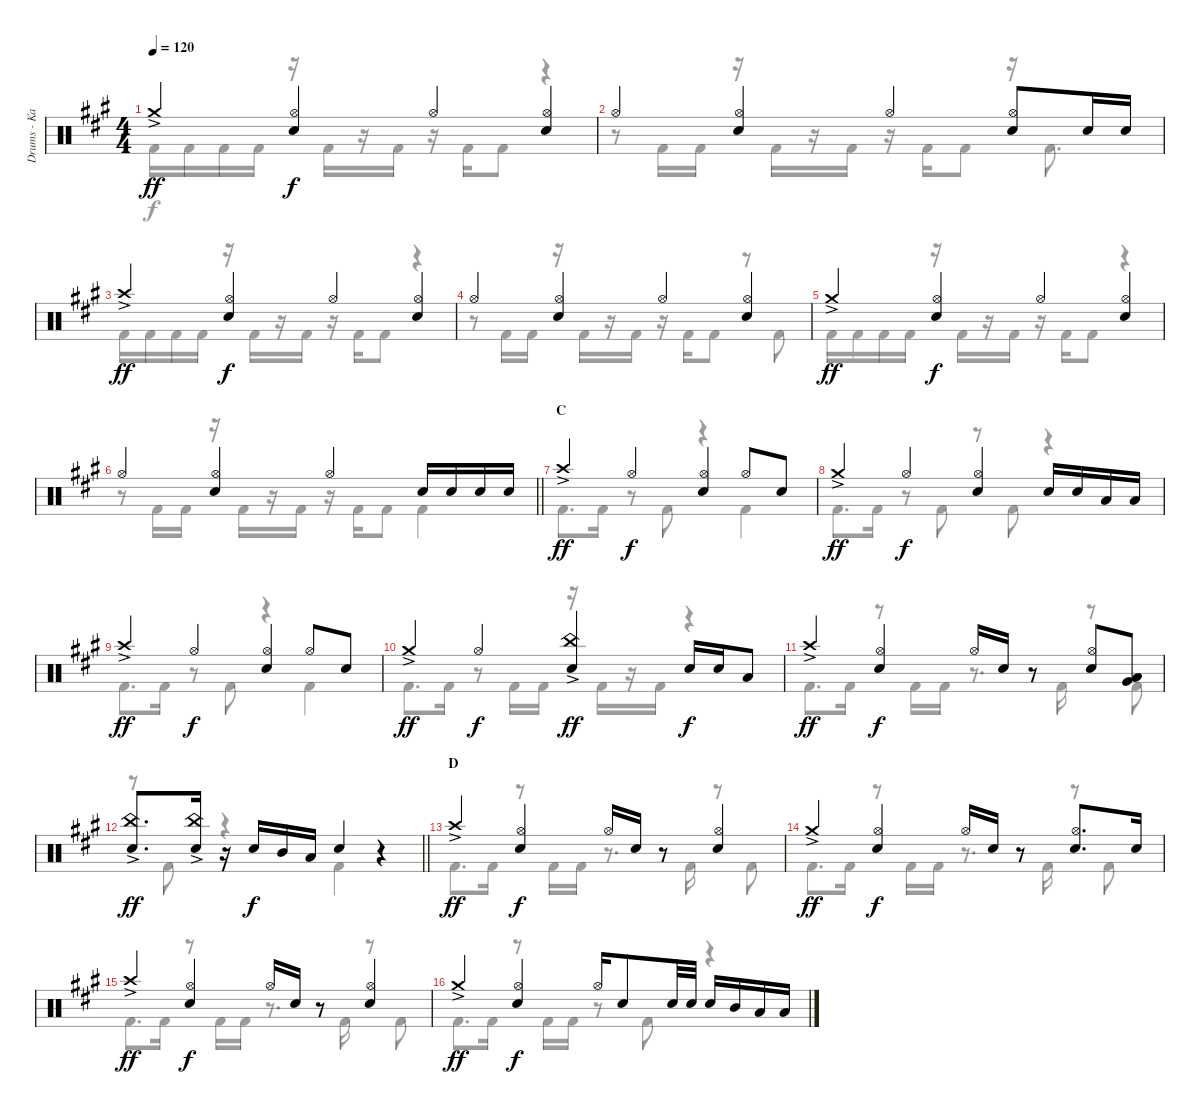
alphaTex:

\track ("Drums - Kai" "Drums - Ka") {instrument percussion}
\staff {score}
\articulation defaults
\voice
\ts (4 4)
\tempo 120
\clef neutral
\ks a "Crash medium (hit)"{ac}.4{dy ff}
("Hi-Hat (open)" "Snare (hit) 2").4{dy f} "Hi-Hat (open)".4 ("Hi-Hat (open)" "Snare (hit) 2").4 |
"Hi-Hat (open)".4 ("Hi-Hat (open)" "Snare (hit) 2").4 "Hi-Hat (open)".4 ("Hi-Hat (open)" "Snare (hit) 2").8 "Snare (hit) 2".16 "Snare (hit) 2".16 |
"Crash high (hit)"{ac}.4{dy ff} ("Hi-Hat (open)" "Snare (hit) 2").4{dy f} "Hi-Hat (open)".4 ("Hi-Hat (open)" "Snare (hit) 2").4 |
"Hi-Hat (open)".4 ("Hi-Hat (open)" "Snare (hit) 2").4 "Hi-Hat (open)".4 ("Hi-Hat (open)" "Snare (hit) 2").4 |
"Crash medium (hit)"{ac}.4{dy ff} ("Hi-Hat (open)" "Snare (hit) 2").4{dy f} "Hi-Hat (open)".4 ("Hi-Hat (open)" "Snare (hit) 2").4 |
\barLineRight lightlight "Hi-Hat (open)".4
("Hi-Hat (open)" "Snare (hit) 2").4 "Hi-Hat (open)".4 "Snare (hit) 2".16 "Snare (hit) 2".16 "Snare (hit) 2".16 "Snare (hit) 2".16 |
\section ("" "C")
"Crash high (hit)"{ac}.4{dy ff} "Hi-Hat (open)".4{dy f} ("Hi-Hat (open)" "Snare (hit) 2").4 "Hi-Hat (open)".8 "Snare (hit) 2".8 |
"Crash medium (hit)"{ac}.4{dy ff} "Hi-Hat (open)".4{dy f} ("Hi-Hat (open)" "Snare (hit) 2").4 "Snare (hit) 2".16 "Snare (hit) 2".16 "Low Tom (hit)".16 "Low Tom (hit)".16 |
"Crash high (hit)"{ac}.4{dy ff} "Hi-Hat (open)".4{dy f} ("Hi-Hat (open)" "Snare (hit) 2").4 "Hi-Hat (open)".8 "Snare (hit) 2".8 |
"Crash medium (hit)"{ac}.4{dy ff} "Hi-Hat (open)".4{dy f} ("China (hit)"{ac} "Snare (hit) 2").4{dy ff} "Snare (hit) 2".16{dy f} "Snare (hit) 2".16 "Low Tom (hit)".8 |
"Crash high (hit)"{ac}.4{dy ff} ("Hi-Hat (open)" "Snare (hit) 2").4{dy f} "Hi-Hat (open)".16 "Snare (hit) 2".16 r.8 ("Hi-Hat (open)" "Snare (hit) 2").8 ("Low Tom (hit)" "Very Low Tom (hit)").8 |
\barLineRight lightlight
("China (hit)"{ac} "Snare (hit) 2").8{d dy ff} ("China (hit)"{ac} "Snare (hit) 2").16 r.16 "Snare (hit) 2".16{dy f} "Mid Tom (hit)".16 "Low Tom (hit)".16 "Snare (hit) 2".4 r.4 |
\section ("" "D")
"Crash high (hit)"{ac}.4{dy ff} ("Hi-Hat (open)" "Snare (hit) 2").4{dy f} "Hi-Hat (open)".16 "Snare (hit) 2".16 r.8 ("Hi-Hat (open)" "Snare (hit) 2").4 |
"Crash medium (hit)"{ac}.4{dy ff} ("Hi-Hat (open)" "Snare (hit) 2").4{dy f} "Hi-Hat (open)".16 "Snare (hit) 2".16 r.8 ("Hi-Hat (open)" "Snare (hit) 2").8{d} "Snare (hit) 2".16 |
"Crash high (hit)"{ac}.4{dy ff} ("Hi-Hat (open)" "Snare (hit) 2").4{dy f} "Hi-Hat (open)".16 "Snare (hit) 2".16 r.8 ("Hi-Hat (open)" "Snare (hit) 2").4 |
"Crash medium (hit)"{ac}.4{dy ff} ("Hi-Hat (open)" "Snare (hit) 2").4{dy f} "Hi-Hat (open)".16 "Snare (hit) 2".8 "Snare (hit) 2".32 "Snare (hit) 2".32 "Snare (hit) 2".16 "Mid Tom (hit)".16 "Low Tom (hit)".16 "Low Tom (hit)".16
\voice
\clef neutral
\ottava regular
\simile none
\ks a "Kick (hit) 2".16{dy f} "Kick (hit) 2".16 "Kick (hit) 2".16 "Kick (hit) 2".16
r.16 "Kick (hit) 2".16 r.16 "Kick (hit) 2".16 r.16 "Kick (hit) 2".16 "Kick (hit) 2".8 r.4 |
r.8 "Kick (hit) 2".16 "Kick (hit) 2".16 r.16 "Kick (hit) 2".16 r.16 "Kick (hit) 2".16 r.16 "Kick (hit) 2".16 "Kick (hit) 2".8 r.16 "Kick (hit) 2".8{d} |
"Kick (hit) 2".16 "Kick (hit) 2".16 "Kick (hit) 2".16 "Kick (hit) 2".16 r.16 "Kick (hit) 2".16 r.16 "Kick (hit) 2".16 r.16 "Kick (hit) 2".16 "Kick (hit) 2".8 r.4 |
r.8 "Kick (hit) 2".16 "Kick (hit) 2".16 r.16 "Kick (hit) 2".16 r.16 "Kick (hit) 2".16 r.16 "Kick (hit) 2".16 "Kick (hit) 2".8 r.8 "Kick (hit) 2".8 |
"Kick (hit) 2".16 "Kick (hit) 2".16 "Kick (hit) 2".16 "Kick (hit) 2".16 r.16 "Kick (hit) 2".16 r.16 "Kick (hit) 2".16 r.16 "Kick (hit) 2".16 "Kick (hit) 2".8 r.4 |
\barLineRight lightlight
r.8 "Kick (hit) 2".16 "Kick (hit) 2".16 r.16 "Kick (hit) 2".16 r.16 "Kick (hit) 2".16 r.16 "Kick (hit) 2".16 "Kick (hit) 2".8 "Kick (hit) 2".4 |
"Kick (hit) 2".8{d} "Kick (hit) 2".16 r.8 "Kick (hit) 2".8 r.4 "Kick (hit) 2".4 |
"Kick (hit) 2".8{d} "Kick (hit) 2".16 r.8 "Kick (hit) 2".8 r.8 "Kick (hit) 2".8 r.4 |
"Kick (hit) 2".8{d} "Kick (hit) 2".16 r.8 "Kick (hit) 2".8 r.4 "Kick (hit) 2".4 |
"Kick (hit) 2".8{d} "Kick (hit) 2".16 r.8 "Kick (hit) 2".16 "Kick (hit) 2".16 r.16 "Kick (hit) 2".16 r.16 "Kick (hit) 2".16 r.4 |
"Kick (hit) 2".8{d} "Kick (hit) 2".16 r.8 "Kick (hit) 2".16 "Kick (hit) 2".16 r.8{d} "Kick (hit) 2".16 r.8 "Kick (hit) 2".8 |
\barLineRight lightlight
r.8 "Kick (hit) 2".8 r.4 "Kick (hit) 2".4 r.4 |
"Kick (hit) 2".8{d} "Kick (hit) 2".16 r.8 "Kick (hit) 2".16 "Kick (hit) 2".16 r.8{d} "Kick (hit) 2".16 r.8 "Kick (hit) 2".8 |
"Kick (hit) 2".8{d} "Kick (hit) 2".16 r.8 "Kick (hit) 2".16 "Kick (hit) 2".16 r.8{d} "Kick (hit) 2".16 r.8 "Kick (hit) 2".8 |
"Kick (hit) 2".8{d} "Kick (hit) 2".16 r.8 "Kick (hit) 2".16 "Kick (hit) 2".16 r.8{d} "Kick (hit) 2".16 r.8 "Kick (hit) 2".8 |
"Kick (hit) 2".8{d} "Kick (hit) 2".16 r.8 "Kick (hit) 2".16 "Kick (hit) 2".16 r.8 "Kick (hit) 2".8 r.4
